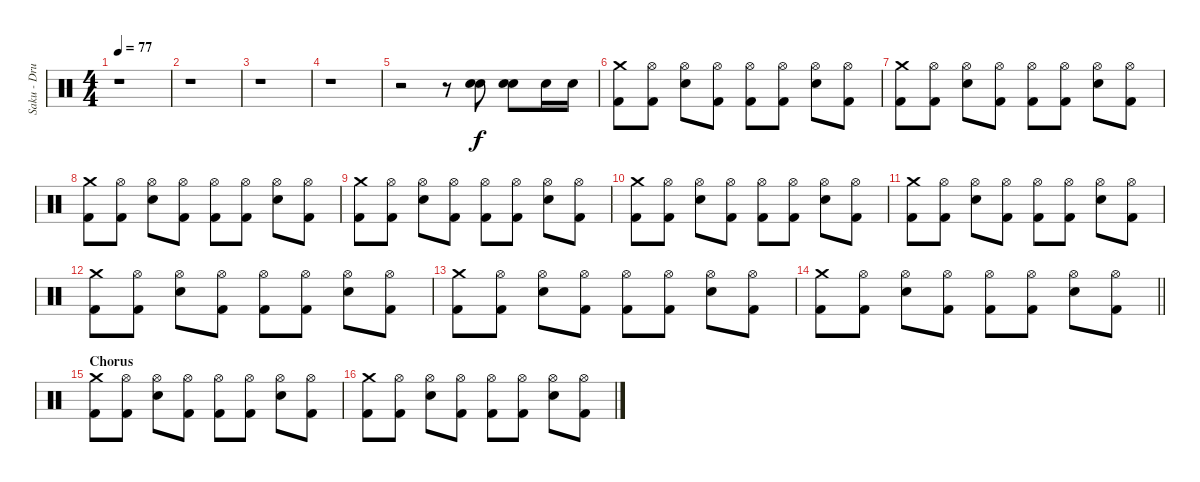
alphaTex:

\track ("Saku - Drums" "Saku - Dru") {instrument percussion}
\staff {score}
\articulation defaults
\ts (4 4)
\tempo 77
\clef neutral
\ks c
r.1{dy f} |
r.1 |
r.1 |
r.1 |
r.2 r.8 ("Electric Snare (hit)" "Electric Snare (hit)").8 ("Electric Snare (hit)" "Electric Snare (hit)").8 "Electric Snare (hit)".16 "Electric Snare (hit)".16 |
("Kick (hit) 2" "Crash medium (hit)").8 ("Kick (hit) 2" "Hi-Hat (open)").8 ("Electric Snare (hit)" "Hi-Hat (open)").8 ("Kick (hit) 2" "Hi-Hat (open)").8 ("Kick (hit) 2" "Hi-Hat (open)").8 ("Kick (hit) 2" "Hi-Hat (open)").8 ("Electric Snare (hit)" "Hi-Hat (open)").8 ("Kick (hit) 2" "Hi-Hat (open)").8 |
("Kick (hit) 2" "Crash medium (hit)").8 ("Kick (hit) 2" "Hi-Hat (open)").8 ("Electric Snare (hit)" "Hi-Hat (open)").8 ("Kick (hit) 2" "Hi-Hat (open)").8 ("Kick (hit) 2" "Hi-Hat (open)").8 ("Kick (hit) 2" "Hi-Hat (open)").8 ("Electric Snare (hit)" "Hi-Hat (open)").8 ("Kick (hit) 2" "Hi-Hat (open)").8 |
("Kick (hit) 2" "Crash medium (hit)").8 ("Kick (hit) 2" "Hi-Hat (open)").8 ("Electric Snare (hit)" "Hi-Hat (open)").8 ("Kick (hit) 2" "Hi-Hat (open)").8 ("Kick (hit) 2" "Hi-Hat (open)").8 ("Kick (hit) 2" "Hi-Hat (open)").8 ("Electric Snare (hit)" "Hi-Hat (open)").8 ("Kick (hit) 2" "Hi-Hat (open)").8 |
("Kick (hit) 2" "Crash medium (hit)").8 ("Kick (hit) 2" "Hi-Hat (open)").8 ("Electric Snare (hit)" "Hi-Hat (open)").8 ("Kick (hit) 2" "Hi-Hat (open)").8 ("Kick (hit) 2" "Hi-Hat (open)").8 ("Kick (hit) 2" "Hi-Hat (open)").8 ("Electric Snare (hit)" "Hi-Hat (open)").8 ("Kick (hit) 2" "Hi-Hat (open)").8 |
("Kick (hit) 2" "Crash medium (hit)").8 ("Kick (hit) 2" "Hi-Hat (open)").8 ("Electric Snare (hit)" "Hi-Hat (open)").8 ("Kick (hit) 2" "Hi-Hat (open)").8 ("Kick (hit) 2" "Hi-Hat (open)").8 ("Kick (hit) 2" "Hi-Hat (open)").8 ("Electric Snare (hit)" "Hi-Hat (open)").8 ("Kick (hit) 2" "Hi-Hat (open)").8 |
("Kick (hit) 2" "Crash medium (hit)").8 ("Kick (hit) 2" "Hi-Hat (open)").8 ("Electric Snare (hit)" "Hi-Hat (open)").8 ("Kick (hit) 2" "Hi-Hat (open)").8 ("Kick (hit) 2" "Hi-Hat (open)").8 ("Kick (hit) 2" "Hi-Hat (open)").8 ("Electric Snare (hit)" "Hi-Hat (open)").8 ("Kick (hit) 2" "Hi-Hat (open)").8 |
("Kick (hit) 2" "Crash medium (hit)").8 ("Kick (hit) 2" "Hi-Hat (open)").8 ("Electric Snare (hit)" "Hi-Hat (open)").8 ("Kick (hit) 2" "Hi-Hat (open)").8 ("Kick (hit) 2" "Hi-Hat (open)").8 ("Kick (hit) 2" "Hi-Hat (open)").8 ("Electric Snare (hit)" "Hi-Hat (open)").8 ("Kick (hit) 2" "Hi-Hat (open)").8 |
("Kick (hit) 2" "Crash medium (hit)").8 ("Kick (hit) 2" "Hi-Hat (open)").8 ("Electric Snare (hit)" "Hi-Hat (open)").8 ("Kick (hit) 2" "Hi-Hat (open)").8 ("Kick (hit) 2" "Hi-Hat (open)").8 ("Kick (hit) 2" "Hi-Hat (open)").8 ("Electric Snare (hit)" "Hi-Hat (open)").8 ("Kick (hit) 2" "Hi-Hat (open)").8 |
\barLineRight lightlight
("Kick (hit) 2" "Crash medium (hit)").8 ("Kick (hit) 2" "Hi-Hat (open)").8 ("Electric Snare (hit)" "Hi-Hat (open)").8 ("Kick (hit) 2" "Hi-Hat (open)").8 ("Kick (hit) 2" "Hi-Hat (open)").8 ("Kick (hit) 2" "Hi-Hat (open)").8 ("Electric Snare (hit)" "Hi-Hat (open)").8 ("Kick (hit) 2" "Hi-Hat (open)").8 |
\section ("" "Chorus")
("Kick (hit) 2" "Crash medium (hit)").8 ("Kick (hit) 2" "Hi-Hat (open)").8 ("Electric Snare (hit)" "Hi-Hat (open)").8 ("Kick (hit) 2" "Hi-Hat (open)").8 ("Kick (hit) 2" "Hi-Hat (open)").8 ("Kick (hit) 2" "Hi-Hat (open)").8 ("Electric Snare (hit)" "Hi-Hat (open)").8 ("Kick (hit) 2" "Hi-Hat (open)").8 |
("Kick (hit) 2" "Crash medium (hit)").8 ("Kick (hit) 2" "Hi-Hat (open)").8 ("Electric Snare (hit)" "Hi-Hat (open)").8 ("Kick (hit) 2" "Hi-Hat (open)").8 ("Kick (hit) 2" "Hi-Hat (open)").8 ("Kick (hit) 2" "Hi-Hat (open)").8 ("Electric Snare (hit)" "Hi-Hat (open)").8 ("Kick (hit) 2" "Hi-Hat (open)").8
